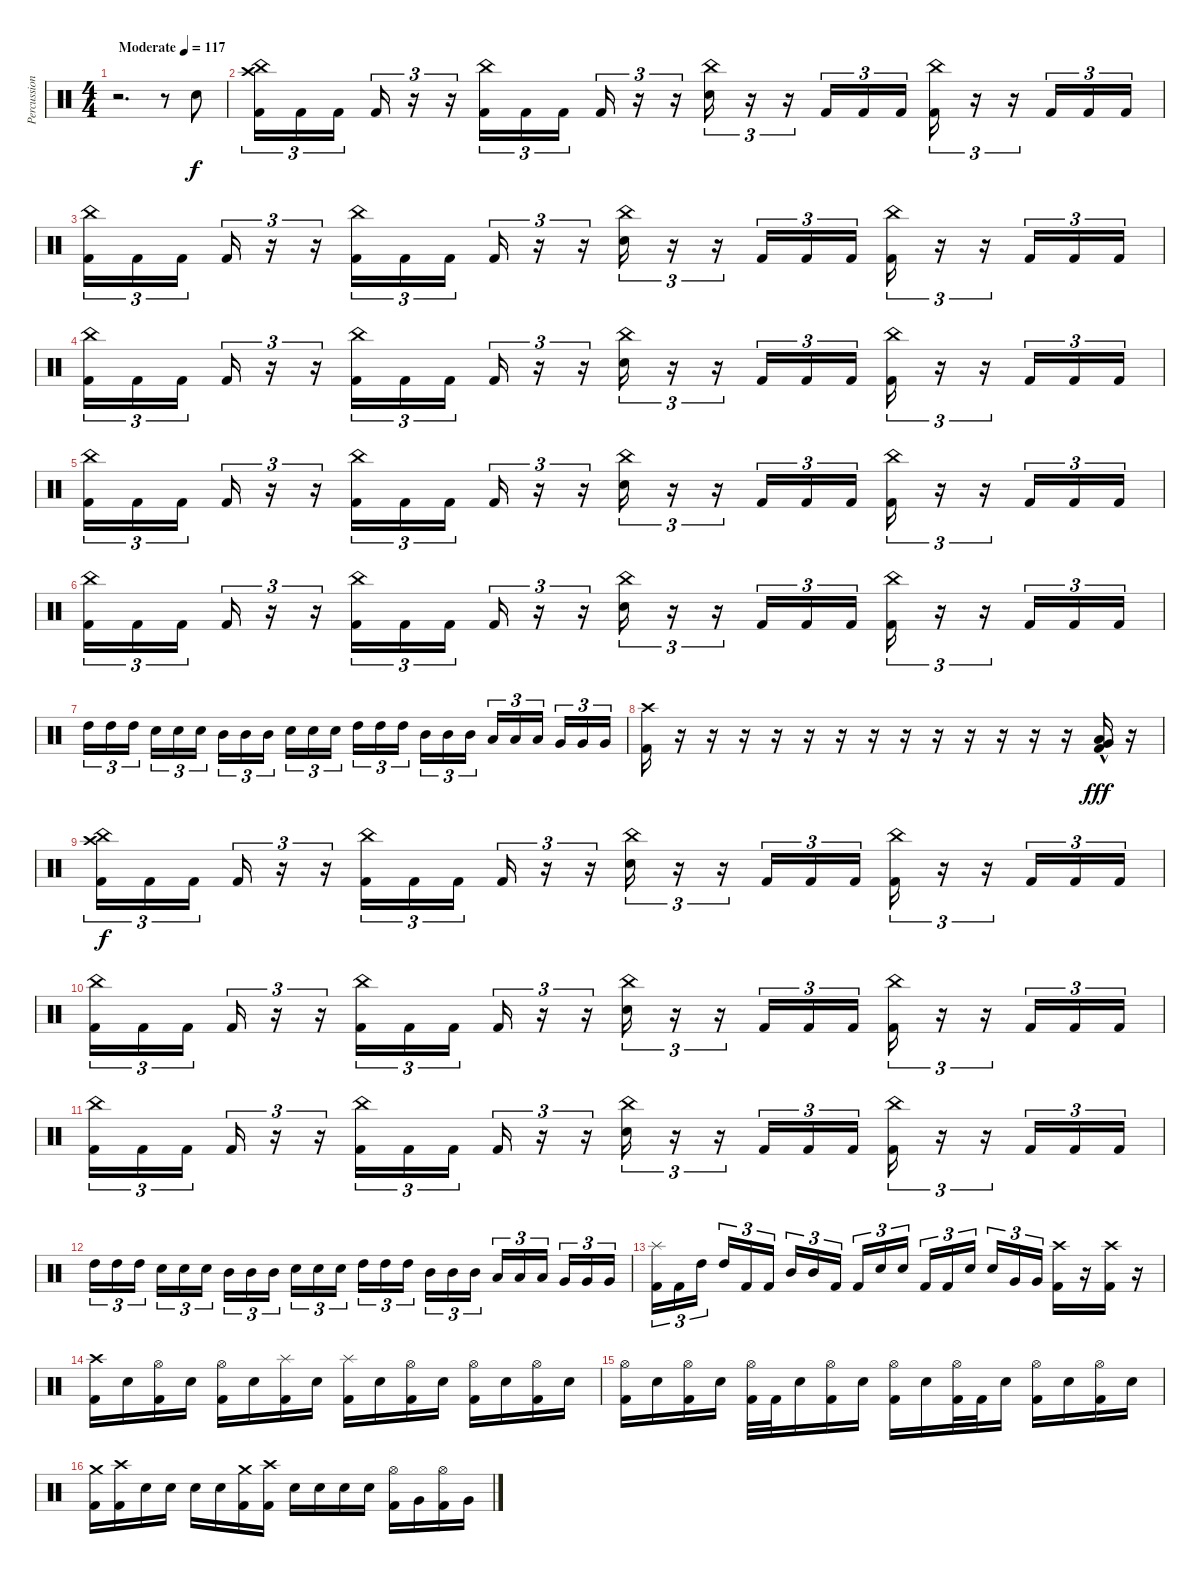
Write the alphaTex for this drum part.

\track ("Percussion" "Percussion") {instrument percussion}
\staff {score}
\articulation defaults
\ts (4 4)
\tempo (117 "Moderate")
\clef neutral
\ks c
r.2{d dy f} r.8 "Electric Snare (hit)".8 |
("Crash high (hit)" "China (hit)" "Kick (hit) 2").16{tu (3 2)} "Kick (hit) 2".16{tu (3 2)} "Kick (hit) 2".16{tu (3 2) beam splitsecondary} "Kick (hit) 2".16{tu (3 2)} r.16{tu (3 2)} r.16{tu (3 2)} ("China (hit)" "Kick (hit) 2").16{tu (3 2)} "Kick (hit) 2".16{tu (3 2)} "Kick (hit) 2".16{tu (3 2) beam splitsecondary} "Kick (hit) 2".16{tu (3 2)} r.16{tu (3 2)} r.16{tu (3 2)} ("China (hit)" "Electric Snare (hit)").16{tu (3 2)} r.16{tu (3 2)} r.16{tu (3 2)} "Kick (hit) 2".16{tu (3 2)} "Kick (hit) 2".16{tu (3 2)} "Kick (hit) 2".16{tu (3 2)} ("China (hit)" "Kick (hit) 2").16{tu (3 2)} r.16{tu (3 2)} r.16{tu (3 2)} "Kick (hit) 2".16{tu (3 2)} "Kick (hit) 2".16{tu (3 2)} "Kick (hit) 2".16{tu (3 2)} |
("China (hit)" "Kick (hit) 2").16{tu (3 2)} "Kick (hit) 2".16{tu (3 2)} "Kick (hit) 2".16{tu (3 2) beam splitsecondary} "Kick (hit) 2".16{tu (3 2)} r.16{tu (3 2)} r.16{tu (3 2)} ("China (hit)" "Kick (hit) 2").16{tu (3 2)} "Kick (hit) 2".16{tu (3 2)} "Kick (hit) 2".16{tu (3 2) beam splitsecondary} "Kick (hit) 2".16{tu (3 2)} r.16{tu (3 2)} r.16{tu (3 2)} ("China (hit)" "Electric Snare (hit)").16{tu (3 2)} r.16{tu (3 2)} r.16{tu (3 2)} "Kick (hit) 2".16{tu (3 2)} "Kick (hit) 2".16{tu (3 2)} "Kick (hit) 2".16{tu (3 2)} ("China (hit)" "Kick (hit) 2").16{tu (3 2)} r.16{tu (3 2)} r.16{tu (3 2)} "Kick (hit) 2".16{tu (3 2)} "Kick (hit) 2".16{tu (3 2)} "Kick (hit) 2".16{tu (3 2)} |
("China (hit)" "Kick (hit) 2").16{tu (3 2)} "Kick (hit) 2".16{tu (3 2)} "Kick (hit) 2".16{tu (3 2) beam splitsecondary} "Kick (hit) 2".16{tu (3 2)} r.16{tu (3 2)} r.16{tu (3 2)} ("China (hit)" "Kick (hit) 2").16{tu (3 2)} "Kick (hit) 2".16{tu (3 2)} "Kick (hit) 2".16{tu (3 2) beam splitsecondary} "Kick (hit) 2".16{tu (3 2)} r.16{tu (3 2)} r.16{tu (3 2)} ("China (hit)" "Electric Snare (hit)").16{tu (3 2)} r.16{tu (3 2)} r.16{tu (3 2)} "Kick (hit) 2".16{tu (3 2)} "Kick (hit) 2".16{tu (3 2)} "Kick (hit) 2".16{tu (3 2)} ("China (hit)" "Kick (hit) 2").16{tu (3 2)} r.16{tu (3 2)} r.16{tu (3 2)} "Kick (hit) 2".16{tu (3 2)} "Kick (hit) 2".16{tu (3 2)} "Kick (hit) 2".16{tu (3 2)} |
("China (hit)" "Kick (hit) 2").16{tu (3 2)} "Kick (hit) 2".16{tu (3 2)} "Kick (hit) 2".16{tu (3 2) beam splitsecondary} "Kick (hit) 2".16{tu (3 2)} r.16{tu (3 2)} r.16{tu (3 2)} ("China (hit)" "Kick (hit) 2").16{tu (3 2)} "Kick (hit) 2".16{tu (3 2)} "Kick (hit) 2".16{tu (3 2) beam splitsecondary} "Kick (hit) 2".16{tu (3 2)} r.16{tu (3 2)} r.16{tu (3 2)} ("China (hit)" "Electric Snare (hit)").16{tu (3 2)} r.16{tu (3 2)} r.16{tu (3 2)} "Kick (hit) 2".16{tu (3 2)} "Kick (hit) 2".16{tu (3 2)} "Kick (hit) 2".16{tu (3 2)} ("China (hit)" "Kick (hit) 2").16{tu (3 2)} r.16{tu (3 2)} r.16{tu (3 2)} "Kick (hit) 2".16{tu (3 2)} "Kick (hit) 2".16{tu (3 2)} "Kick (hit) 2".16{tu (3 2)} |
("China (hit)" "Kick (hit) 2").16{tu (3 2)} "Kick (hit) 2".16{tu (3 2)} "Kick (hit) 2".16{tu (3 2) beam splitsecondary} "Kick (hit) 2".16{tu (3 2)} r.16{tu (3 2)} r.16{tu (3 2)} ("China (hit)" "Kick (hit) 2").16{tu (3 2)} "Kick (hit) 2".16{tu (3 2)} "Kick (hit) 2".16{tu (3 2) beam splitsecondary} "Kick (hit) 2".16{tu (3 2)} r.16{tu (3 2)} r.16{tu (3 2)} ("China (hit)" "Electric Snare (hit)").16{tu (3 2)} r.16{tu (3 2)} r.16{tu (3 2)} "Kick (hit) 2".16{tu (3 2)} "Kick (hit) 2".16{tu (3 2)} "Kick (hit) 2".16{tu (3 2)} ("China (hit)" "Kick (hit) 2").16{tu (3 2)} r.16{tu (3 2)} r.16{tu (3 2)} "Kick (hit) 2".16{tu (3 2)} "Kick (hit) 2".16{tu (3 2)} "Kick (hit) 2".16{tu (3 2)} |
"High Tom (hit)".16{tu (3 2)} "High Tom (hit)".16{tu (3 2)} "High Tom (hit)".16{tu (3 2) beam splitsecondary} "Electric Snare (hit)".16{tu (3 2)} "Electric Snare (hit)".16{tu (3 2)} "Electric Snare (hit)".16{tu (3 2)} "Mid Tom (hit)".16{tu (3 2)} "Mid Tom (hit)".16{tu (3 2)} "Mid Tom (hit)".16{tu (3 2) beam splitsecondary} "Electric Snare (hit)".16{tu (3 2)} "Electric Snare (hit)".16{tu (3 2)} "Electric Snare (hit)".16{tu (3 2)} "High Tom (hit)".16{tu (3 2)} "High Tom (hit)".16{tu (3 2)} "High Tom (hit)".16{tu (3 2) beam splitsecondary} "Mid Tom (hit)".16{tu (3 2)} "Mid Tom (hit)".16{tu (3 2)} "Mid Tom (hit)".16{tu (3 2)} "Low Tom (hit)".16{tu (3 2)} "Low Tom (hit)".16{tu (3 2)} "Low Tom (hit)".16{tu (3 2) beam splitsecondary} "Very Low Tom (hit)".16{tu (3 2)} "Very Low Tom (hit)".16{tu (3 2)} "Very Low Tom (hit)".16{tu (3 2)} |
("Crash high (hit)" "Kick (hit) 2").16 r.16{volume 0} r.16 r.16 r.16 r.16 r.16 r.16 r.16 r.16 r.16 r.16 r.16 r.16 ("Low Tom (hit)"{hac} "Very Low Tom (hit)"{hac} "Kick (hit) 2").16{dy fff volume 13} r.16 |
("Crash high (hit)" "China (hit)" "Kick (hit) 2").16{tu (3 2) dy f} "Kick (hit) 2".16{tu (3 2)} "Kick (hit) 2".16{tu (3 2) beam splitsecondary} "Kick (hit) 2".16{tu (3 2)} r.16{tu (3 2)} r.16{tu (3 2)} ("China (hit)" "Kick (hit) 2").16{tu (3 2)} "Kick (hit) 2".16{tu (3 2)} "Kick (hit) 2".16{tu (3 2) beam splitsecondary} "Kick (hit) 2".16{tu (3 2)} r.16{tu (3 2)} r.16{tu (3 2)} ("China (hit)" "Electric Snare (hit)").16{tu (3 2)} r.16{tu (3 2)} r.16{tu (3 2)} "Kick (hit) 2".16{tu (3 2)} "Kick (hit) 2".16{tu (3 2)} "Kick (hit) 2".16{tu (3 2)} ("China (hit)" "Kick (hit) 2").16{tu (3 2)} r.16{tu (3 2)} r.16{tu (3 2)} "Kick (hit) 2".16{tu (3 2)} "Kick (hit) 2".16{tu (3 2)} "Kick (hit) 2".16{tu (3 2)} |
("China (hit)" "Kick (hit) 2").16{tu (3 2)} "Kick (hit) 2".16{tu (3 2)} "Kick (hit) 2".16{tu (3 2) beam splitsecondary} "Kick (hit) 2".16{tu (3 2)} r.16{tu (3 2)} r.16{tu (3 2)} ("China (hit)" "Kick (hit) 2").16{tu (3 2)} "Kick (hit) 2".16{tu (3 2)} "Kick (hit) 2".16{tu (3 2) beam splitsecondary} "Kick (hit) 2".16{tu (3 2)} r.16{tu (3 2)} r.16{tu (3 2)} ("China (hit)" "Electric Snare (hit)").16{tu (3 2)} r.16{tu (3 2)} r.16{tu (3 2)} "Kick (hit) 2".16{tu (3 2)} "Kick (hit) 2".16{tu (3 2)} "Kick (hit) 2".16{tu (3 2)} ("China (hit)" "Kick (hit) 2").16{tu (3 2)} r.16{tu (3 2)} r.16{tu (3 2)} "Kick (hit) 2".16{tu (3 2)} "Kick (hit) 2".16{tu (3 2)} "Kick (hit) 2".16{tu (3 2)} |
("China (hit)" "Kick (hit) 2").16{tu (3 2)} "Kick (hit) 2".16{tu (3 2)} "Kick (hit) 2".16{tu (3 2) beam splitsecondary} "Kick (hit) 2".16{tu (3 2)} r.16{tu (3 2)} r.16{tu (3 2)} ("China (hit)" "Kick (hit) 2").16{tu (3 2)} "Kick (hit) 2".16{tu (3 2)} "Kick (hit) 2".16{tu (3 2) beam splitsecondary} "Kick (hit) 2".16{tu (3 2)} r.16{tu (3 2)} r.16{tu (3 2)} ("China (hit)" "Electric Snare (hit)").16{tu (3 2)} r.16{tu (3 2)} r.16{tu (3 2)} "Kick (hit) 2".16{tu (3 2)} "Kick (hit) 2".16{tu (3 2)} "Kick (hit) 2".16{tu (3 2)} ("China (hit)" "Kick (hit) 2").16{tu (3 2)} r.16{tu (3 2)} r.16{tu (3 2)} "Kick (hit) 2".16{tu (3 2)} "Kick (hit) 2".16{tu (3 2)} "Kick (hit) 2".16{tu (3 2)} |
"High Tom (hit)".16{tu (3 2)} "High Tom (hit)".16{tu (3 2)} "High Tom (hit)".16{tu (3 2) beam splitsecondary} "Electric Snare (hit)".16{tu (3 2)} "Electric Snare (hit)".16{tu (3 2)} "Electric Snare (hit)".16{tu (3 2)} "Mid Tom (hit)".16{tu (3 2)} "Mid Tom (hit)".16{tu (3 2)} "Mid Tom (hit)".16{tu (3 2) beam splitsecondary} "Electric Snare (hit)".16{tu (3 2)} "Electric Snare (hit)".16{tu (3 2)} "Electric Snare (hit)".16{tu (3 2)} "High Tom (hit)".16{tu (3 2)} "High Tom (hit)".16{tu (3 2)} "High Tom (hit)".16{tu (3 2) beam splitsecondary} "Mid Tom (hit)".16{tu (3 2)} "Mid Tom (hit)".16{tu (3 2)} "Mid Tom (hit)".16{tu (3 2)} "Low Tom (hit)".16{tu (3 2)} "Low Tom (hit)".16{tu (3 2)} "Low Tom (hit)".16{tu (3 2) beam splitsecondary} "Very Low Tom (hit)".16{tu (3 2)} "Very Low Tom (hit)".16{tu (3 2)} "Very Low Tom (hit)".16{tu (3 2)} |
("Splash (hit)" "Kick (hit) 2").16{tu (3 2)} "Kick (hit) 2".16{tu (3 2)} "High Tom (hit)".16{tu (3 2) beam splitsecondary} "High Tom (hit)".16{tu (3 2)} "Kick (hit) 2".16{tu (3 2)} "Kick (hit) 2".16{tu (3 2)} "Mid Tom (hit)".16{tu (3 2)} "Mid Tom (hit)".16{tu (3 2)} "Kick (hit) 2".16{tu (3 2) beam splitsecondary} "Kick (hit) 2".16{tu (3 2)} "Electric Snare (hit)".16{tu (3 2)} "Electric Snare (hit)".16{tu (3 2)} "Kick (hit) 2".16{tu (3 2)} "Kick (hit) 2".16{tu (3 2)} "Electric Snare (hit)".16{tu (3 2) beam splitsecondary} "Electric Snare (hit)".16{tu (3 2)} "Very Low Tom (hit)".16{tu (3 2)} "Very Low Tom (hit)".16{tu (3 2)} ("Crash high (hit)" "Kick (hit) 2").16 r.16{volume 0} ("Crash high (hit)" "Kick (hit) 2").16{volume 13} r.16{volume 0} |
("Crash high (hit)" "Kick (hit) 2").16{volume 13} "Electric Snare (hit)".16 ("Hi-Hat (open)" "Kick (hit) 2").16 "Electric Snare (hit)".16 ("Hi-Hat (open)" "Kick (hit) 2").16 "Electric Snare (hit)".16 ("Splash (hit)" "Kick (hit) 2").16 "Electric Snare (hit)".16 ("Splash (hit)" "Kick (hit) 2").16 "Electric Snare (hit)".16 ("Hi-Hat (open)" "Kick (hit) 2").16 "Electric Snare (hit)".16 ("Hi-Hat (open)" "Kick (hit) 2").16 "Electric Snare (hit)".16 ("Hi-Hat (open)" "Kick (hit) 2").16 "Electric Snare (hit)".16 |
("Hi-Hat (open)" "Kick (hit) 2").16 "Electric Snare (hit)".16 ("Hi-Hat (open)" "Kick (hit) 2").16 "Electric Snare (hit)".16 ("Hi-Hat (open)" "Kick (hit) 2").32 "Kick (hit) 2".32 "Electric Snare (hit)".16 ("Hi-Hat (open)" "Kick (hit) 2").16 "Electric Snare (hit)".16 ("Hi-Hat (open)" "Kick (hit) 2").16 "Electric Snare (hit)".16 ("Hi-Hat (open)" "Kick (hit) 2").32 "Kick (hit) 2".32 "Electric Snare (hit)".16 ("Hi-Hat (open)" "Kick (hit) 2").16 "Electric Snare (hit)".16 ("Hi-Hat (open)" "Kick (hit) 2").16 "Electric Snare (hit)".16 |
("Crash medium (hit)" "Kick (hit) 2").16 ("Crash high (hit)" "Kick (hit) 2").16 "Electric Snare (hit)".16 "Electric Snare (hit)".16 "Electric Snare (hit)".16 "Electric Snare (hit)".16 ("Crash medium (hit)" "Kick (hit) 2").16 ("Crash high (hit)" "Kick (hit) 2").16 "Electric Snare (hit)".16 "Electric Snare (hit)".16 "Electric Snare (hit)".16 "Electric Snare (hit)".16 ("Hi-Hat (open)" "Kick (hit) 2").16 "Very Low Tom (hit)".16 ("Hi-Hat (open)" "Kick (hit) 2").16 "Very Low Tom (hit)".16
